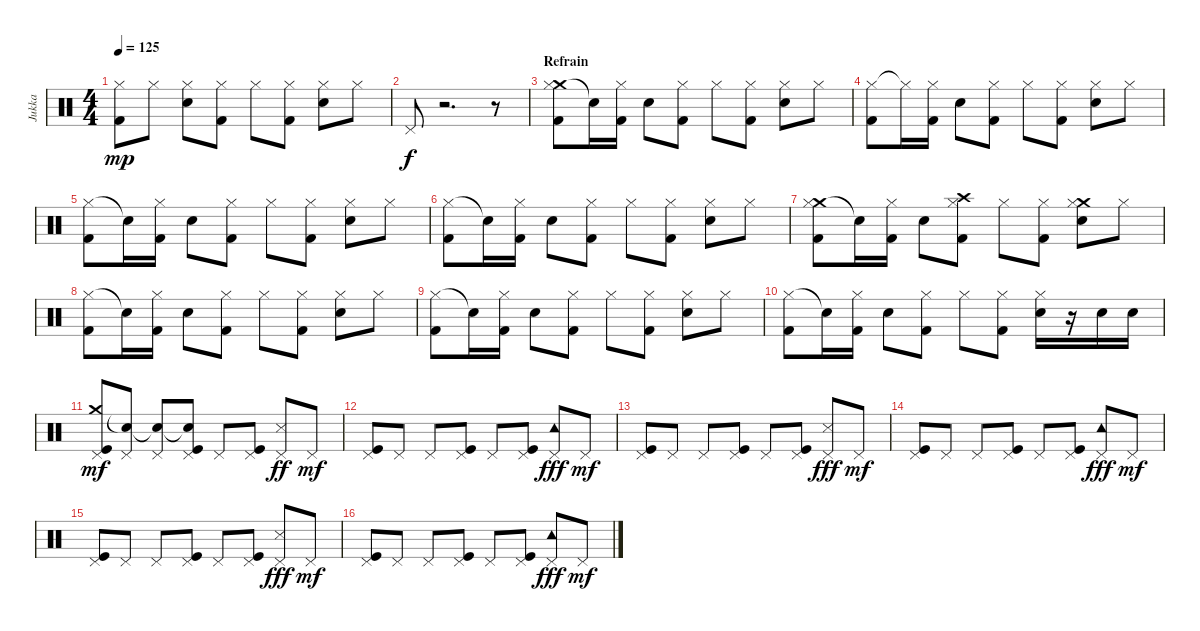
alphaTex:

\track ("Jukka" "Jukka") {instrument percussion}
\staff {score}
\articulation defaults
\ts (4 4)
\tempo 125
\clef neutral
\ks c
("Hi-Hat (closed)" "Kick (hit) 2").8{dy mp} "Hi-Hat (closed)".8 ("Hi-Hat (closed)" "Electric Snare (hit)").8 ("Hi-Hat (closed)" "Kick (hit) 2").8 "Hi-Hat (closed)".8 ("Hi-Hat (closed)" "Kick (hit) 2").8 ("Hi-Hat (closed)" "Electric Snare (hit)").8 "Hi-Hat (closed)".8 |
"Pedal Hi-Hat (hit)".8{dy f} r.2{d} r.8 |
\section ("" "Refrain")
("Crash medium (hit)" "Hi-Hat (closed)" "Kick (hit) 2").8 "Snare (hit)"{t}.16 ("Hi-Hat (closed)" "Kick (hit) 2").16 "Electric Snare (hit)".8 ("Hi-Hat (closed)" "Kick (hit) 2").8 "Hi-Hat (closed)".8 ("Hi-Hat (closed)" "Kick (hit) 2").8 ("Hi-Hat (closed)" "Electric Snare (hit)").8 "Hi-Hat (closed)".8 |
("Hi-Hat (closed)" "Kick (hit) 2").8 "Hi-Hat (closed)"{t}.16 ("Hi-Hat (closed)" "Kick (hit) 2").16 "Electric Snare (hit)".8 ("Hi-Hat (closed)" "Kick (hit) 2").8 "Hi-Hat (closed)".8 ("Hi-Hat (closed)" "Kick (hit) 2").8 ("Hi-Hat (closed)" "Electric Snare (hit)").8 "Hi-Hat (closed)".8 |
("Hi-Hat (closed)" "Kick (hit) 2").8 "Snare (hit)"{t}.16 ("Hi-Hat (closed)" "Kick (hit) 2").16 "Electric Snare (hit)".8 ("Hi-Hat (closed)" "Kick (hit) 2").8 "Hi-Hat (closed)".8 ("Hi-Hat (closed)" "Kick (hit) 2").8 ("Hi-Hat (closed)" "Electric Snare (hit)").8 "Hi-Hat (closed)".8 |
("Hi-Hat (closed)" "Kick (hit) 2").8 "Snare (hit)"{t}.16 ("Hi-Hat (closed)" "Kick (hit) 2").16 "Electric Snare (hit)".8 ("Hi-Hat (closed)" "Kick (hit) 2").8 "Hi-Hat (closed)".8 ("Hi-Hat (closed)" "Kick (hit) 2").8 ("Hi-Hat (closed)" "Electric Snare (hit)").8 "Hi-Hat (closed)".8 |
("Crash medium (hit)" "Hi-Hat (closed)" "Kick (hit) 2").8 "Snare (hit)"{t}.16 ("Hi-Hat (closed)" "Kick (hit) 2").16 "Electric Snare (hit)".8 ("Crash high (hit)" "Hi-Hat (closed)" "Kick (hit) 2").8 "Hi-Hat (closed)".8 ("Hi-Hat (closed)" "Kick (hit) 2").8 ("Crash medium (hit)" "Hi-Hat (closed)" "Electric Snare (hit)").8 "Hi-Hat (closed)".8 |
("Hi-Hat (closed)" "Kick (hit) 2").8 "Snare (hit)"{t}.16 ("Hi-Hat (closed)" "Kick (hit) 2").16 "Electric Snare (hit)".8 ("Hi-Hat (closed)" "Kick (hit) 2").8 "Hi-Hat (closed)".8 ("Hi-Hat (closed)" "Kick (hit) 2").8 ("Hi-Hat (closed)" "Electric Snare (hit)").8 "Hi-Hat (closed)".8 |
("Hi-Hat (closed)" "Kick (hit) 2").8 "Snare (hit)"{t}.16 ("Hi-Hat (closed)" "Kick (hit) 2").16 "Electric Snare (hit)".8 ("Hi-Hat (closed)" "Kick (hit) 2").8 "Hi-Hat (closed)".8 ("Hi-Hat (closed)" "Kick (hit) 2").8 ("Hi-Hat (closed)" "Electric Snare (hit)").8 "Hi-Hat (closed)".8 |
("Hi-Hat (closed)" "Kick (hit) 2").8 "Snare (hit)"{t}.16 ("Hi-Hat (closed)" "Kick (hit) 2").16 "Electric Snare (hit)".8 ("Hi-Hat (closed)" "Kick (hit) 2").8 "Hi-Hat (closed)".8 ("Hi-Hat (closed)" "Kick (hit) 2").8 ("Hi-Hat (closed)" "Electric Snare (hit)").16 r.16 "Electric Snare (hit)".16 "Electric Snare (hit)".16 |
("Crash medium (hit)" "Pedal Hi-Hat (hit)" "Kick (hit)").8{dy mf} ("Snare (hit)"{t} "Pedal Hi-Hat (hit)").8 ("Snare (hit)"{t} "Pedal Hi-Hat (hit)").8 ("Snare (hit)"{t} "Pedal Hi-Hat (hit)" "Kick (hit)").8 "Pedal Hi-Hat (hit)".8 ("Pedal Hi-Hat (hit)" "Kick (hit)").8 ("Pedal Hi-Hat (hit)" "Snare (side stick) 3").8{dy ff} "Pedal Hi-Hat (hit)".8{dy mf} |
("Pedal Hi-Hat (hit)" "Kick (hit)").8 "Pedal Hi-Hat (hit)".8 "Pedal Hi-Hat (hit)".8 ("Pedal Hi-Hat (hit)" "Kick (hit)").8 "Pedal Hi-Hat (hit)".8 ("Pedal Hi-Hat (hit)" "Kick (hit)").8 ("Pedal Hi-Hat (hit)" "Tambourine (hit)").8{dy fff} "Pedal Hi-Hat (hit)".8{dy mf} |
("Pedal Hi-Hat (hit)" "Kick (hit)").8 "Pedal Hi-Hat (hit)".8 "Pedal Hi-Hat (hit)".8 ("Pedal Hi-Hat (hit)" "Kick (hit)").8 "Pedal Hi-Hat (hit)".8 ("Pedal Hi-Hat (hit)" "Kick (hit)").8 ("Pedal Hi-Hat (hit)" "Snare (side stick) 3").8{dy fff} "Pedal Hi-Hat (hit)".8{dy mf} |
("Pedal Hi-Hat (hit)" "Kick (hit)").8 "Pedal Hi-Hat (hit)".8 "Pedal Hi-Hat (hit)".8 ("Pedal Hi-Hat (hit)" "Kick (hit)").8 "Pedal Hi-Hat (hit)".8 ("Pedal Hi-Hat (hit)" "Kick (hit)").8 ("Pedal Hi-Hat (hit)" "Tambourine (hit)").8{dy fff} "Pedal Hi-Hat (hit)".8{dy mf} |
("Pedal Hi-Hat (hit)" "Kick (hit)").8 "Pedal Hi-Hat (hit)".8 "Pedal Hi-Hat (hit)".8 ("Pedal Hi-Hat (hit)" "Kick (hit)").8 "Pedal Hi-Hat (hit)".8 ("Pedal Hi-Hat (hit)" "Kick (hit)").8 ("Pedal Hi-Hat (hit)" "Snare (side stick) 3").8{dy fff} "Pedal Hi-Hat (hit)".8{dy mf} |
("Pedal Hi-Hat (hit)" "Kick (hit)").8 "Pedal Hi-Hat (hit)".8 "Pedal Hi-Hat (hit)".8 ("Pedal Hi-Hat (hit)" "Kick (hit)").8 "Pedal Hi-Hat (hit)".8 ("Pedal Hi-Hat (hit)" "Kick (hit)").8 ("Pedal Hi-Hat (hit)" "Tambourine (hit)").8{dy fff} "Pedal Hi-Hat (hit)".8{dy mf}
